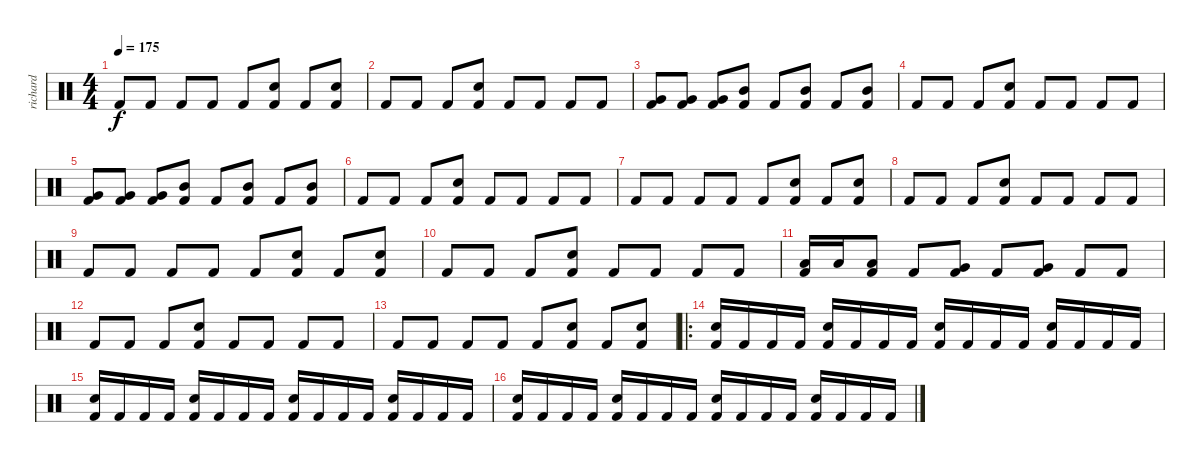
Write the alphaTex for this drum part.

\track ("richard" "richard") {instrument percussion}
\staff {score}
\articulation defaults
\ts (4 4)
\tempo 175
\clef neutral
\ks c "Kick (hit) 2".8{dy f} "Kick (hit) 2".8 "Kick (hit) 2".8 "Kick (hit) 2".8 "Kick (hit) 2".8
("Snare (hit) 2" "Kick (hit) 2").8 "Kick (hit) 2".8 ("Snare (hit) 2" "Kick (hit) 2").8 |
"Kick (hit) 2".8 "Kick (hit) 2".8 "Kick (hit) 2".8 ("Snare (hit) 2" "Kick (hit) 2").8 "Kick (hit) 2".8 "Kick (hit) 2".8 "Kick (hit) 2".8 "Kick (hit) 2".8 |
("Very Low Tom (hit)" "Kick (hit) 2").8 ("Very Low Tom (hit)" "Kick (hit) 2").8 ("Very Low Tom (hit)" "Kick (hit) 2").8 ("Mid Tom (hit)" "Kick (hit) 2").8 "Kick (hit) 2".8 ("Mid Tom (hit)" "Kick (hit) 2").8 "Kick (hit) 2".8 ("Mid Tom (hit)" "Kick (hit) 2").8 |
"Kick (hit) 2".8 "Kick (hit) 2".8 "Kick (hit) 2".8 ("Snare (hit) 2" "Kick (hit) 2").8 "Kick (hit) 2".8 "Kick (hit) 2".8 "Kick (hit) 2".8 "Kick (hit) 2".8 |
("Very Low Tom (hit)" "Kick (hit) 2").8 ("Very Low Tom (hit)" "Kick (hit) 2").8 ("Very Low Tom (hit)" "Kick (hit) 2").8 ("Mid Tom (hit)" "Kick (hit) 2").8 "Kick (hit) 2".8 ("Mid Tom (hit)" "Kick (hit) 2").8 "Kick (hit) 2".8 ("Mid Tom (hit)" "Kick (hit) 2").8 |
"Kick (hit) 2".8 "Kick (hit) 2".8 "Kick (hit) 2".8 ("Snare (hit) 2" "Kick (hit) 2").8 "Kick (hit) 2".8 "Kick (hit) 2".8 "Kick (hit) 2".8 "Kick (hit) 2".8 |
"Kick (hit) 2".8 "Kick (hit) 2".8 "Kick (hit) 2".8 "Kick (hit) 2".8 "Kick (hit) 2".8 ("Snare (hit) 2" "Kick (hit) 2").8 "Kick (hit) 2".8 ("Snare (hit) 2" "Kick (hit) 2").8 |
"Kick (hit) 2".8 "Kick (hit) 2".8 "Kick (hit) 2".8 ("Snare (hit) 2" "Kick (hit) 2").8 "Kick (hit) 2".8 "Kick (hit) 2".8 "Kick (hit) 2".8 "Kick (hit) 2".8 |
"Kick (hit) 2".8 "Kick (hit) 2".8 "Kick (hit) 2".8 "Kick (hit) 2".8 "Kick (hit) 2".8 ("Snare (hit) 2" "Kick (hit) 2").8 "Kick (hit) 2".8 ("Snare (hit) 2" "Kick (hit) 2").8 |
"Kick (hit) 2".8 "Kick (hit) 2".8 "Kick (hit) 2".8 ("Snare (hit) 2" "Kick (hit) 2").8 "Kick (hit) 2".8 "Kick (hit) 2".8 "Kick (hit) 2".8 "Kick (hit) 2".8 |
("Low Tom (hit)" "Kick (hit) 2").16 "Low Tom (hit)".16 ("Low Tom (hit)" "Kick (hit) 2").8 "Kick (hit) 2".8 ("Very Low Tom (hit)" "Kick (hit) 2").8 "Kick (hit) 2".8 ("Very Low Tom (hit)" "Kick (hit) 2").8 "Kick (hit) 2".8 "Kick (hit) 2".8 |
"Kick (hit) 2".8 "Kick (hit) 2".8 "Kick (hit) 2".8 ("Snare (hit) 2" "Kick (hit) 2").8 "Kick (hit) 2".8 "Kick (hit) 2".8 "Kick (hit) 2".8 "Kick (hit) 2".8 |
"Kick (hit) 2".8 "Kick (hit) 2".8 "Kick (hit) 2".8 "Kick (hit) 2".8 "Kick (hit) 2".8 ("Snare (hit) 2" "Kick (hit) 2").8 "Kick (hit) 2".8 ("Snare (hit) 2" "Kick (hit) 2").8 |
\ro
("Snare (hit) 2" "Kick (hit) 2").16 "Kick (hit) 2".16 "Kick (hit) 2".16 "Kick (hit) 2".16 ("Snare (hit) 2" "Kick (hit) 2").16 "Kick (hit) 2".16 "Kick (hit) 2".16 "Kick (hit) 2".16 ("Snare (hit) 2" "Kick (hit) 2").16 "Kick (hit) 2".16 "Kick (hit) 2".16 "Kick (hit) 2".16 ("Snare (hit) 2" "Kick (hit) 2").16 "Kick (hit) 2".16 "Kick (hit) 2".16 "Kick (hit) 2".16 |
("Snare (hit) 2" "Kick (hit) 2").16 "Kick (hit) 2".16 "Kick (hit) 2".16 "Kick (hit) 2".16 ("Snare (hit) 2" "Kick (hit) 2").16 "Kick (hit) 2".16 "Kick (hit) 2".16 "Kick (hit) 2".16 ("Snare (hit) 2" "Kick (hit) 2").16 "Kick (hit) 2".16 "Kick (hit) 2".16 "Kick (hit) 2".16 ("Snare (hit) 2" "Kick (hit) 2").16 "Kick (hit) 2".16 "Kick (hit) 2".16 "Kick (hit) 2".16 |
("Snare (hit) 2" "Kick (hit) 2").16 "Kick (hit) 2".16 "Kick (hit) 2".16 "Kick (hit) 2".16 ("Snare (hit) 2" "Kick (hit) 2").16 "Kick (hit) 2".16 "Kick (hit) 2".16 "Kick (hit) 2".16 ("Snare (hit) 2" "Kick (hit) 2").16 "Kick (hit) 2".16 "Kick (hit) 2".16 "Kick (hit) 2".16 ("Snare (hit) 2" "Kick (hit) 2").16 "Kick (hit) 2".16 "Kick (hit) 2".16 "Kick (hit) 2".16
